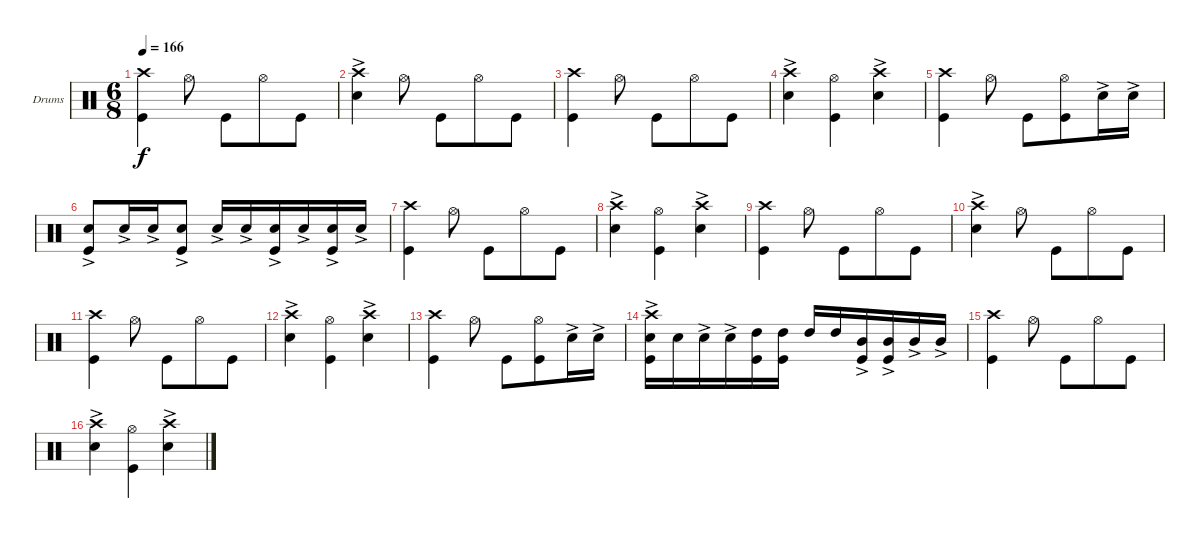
\bracketExtendMode groupsimilarinstruments
\firstSystemTrackNameOrientation horizontal
\otherSystemsTrackNameOrientation horizontal
\track ("Drumkit" "Drums") {instrument percussion}
\staff {score}
\articulation defaults
\ts (6 8)
\tempo 166
\clef neutral
\ks c
("Crash high (hit)" "Kick (hit)").4{dy f} "Hi-Hat (open)".8 "Kick (hit)".8 "Hi-Hat (open)".8 "Kick (hit)".8 |
("Crash high (hit)" "Snare (hit) 2"{ac}).4 "Hi-Hat (open)".8 "Kick (hit)".8 "Hi-Hat (open)".8 "Kick (hit)".8 |
("Crash high (hit)" "Kick (hit)").4 "Hi-Hat (open)".8 "Kick (hit)".8 "Hi-Hat (open)".8 "Kick (hit)".8 |
("Crash high (hit)" "Snare (hit) 2"{ac}).4 ("Hi-Hat (open)" "Kick (hit)").4 ("Crash high (hit)" "Snare (hit) 2"{ac}).4 |
("Crash high (hit)" "Kick (hit)").4 "Hi-Hat (open)".8 "Kick (hit)".8 ("Hi-Hat (open)" "Kick (hit)").8 "Snare (hit) 2"{ac}.16 "Snare (hit) 2"{ac}.16 |
("Snare (hit) 2"{ac} "Kick (hit)").8 "Snare (hit) 2"{ac}.16 "Snare (hit) 2"{ac}.16 ("Snare (hit) 2"{ac} "Kick (hit)").8 "Snare (hit) 2"{ac}.16 "Snare (hit) 2"{ac}.16 ("Snare (hit) 2"{ac} "Kick (hit)").16 "Snare (hit) 2"{ac}.16 ("Snare (hit) 2"{ac} "Kick (hit)").16 "Snare (hit) 2"{ac}.16 |
("Crash high (hit)" "Kick (hit)").4 "Hi-Hat (open)".8 "Kick (hit)".8 "Hi-Hat (open)".8 "Kick (hit)".8 |
("Crash high (hit)" "Snare (hit) 2"{ac}).4 ("Hi-Hat (open)" "Kick (hit)").4 ("Crash high (hit)" "Snare (hit) 2"{ac}).4 |
("Crash high (hit)" "Kick (hit)").4 "Hi-Hat (open)".8 "Kick (hit)".8 "Hi-Hat (open)".8 "Kick (hit)".8 |
("Crash high (hit)" "Snare (hit) 2"{ac}).4 "Hi-Hat (open)".8 "Kick (hit)".8 "Hi-Hat (open)".8 "Kick (hit)".8 |
("Crash high (hit)" "Kick (hit)").4 "Hi-Hat (open)".8 "Kick (hit)".8 "Hi-Hat (open)".8 "Kick (hit)".8 |
("Crash high (hit)" "Snare (hit) 2"{ac}).4 ("Hi-Hat (open)" "Kick (hit)").4 ("Crash high (hit)" "Snare (hit) 2"{ac}).4 |
("Crash high (hit)" "Kick (hit)").4 "Hi-Hat (open)".8 "Kick (hit)".8 ("Hi-Hat (open)" "Kick (hit)").8 "Snare (hit) 2"{ac}.16 "Snare (hit) 2"{ac}.16 |
("Crash high (hit)" "Snare (hit) 2"{ac} "Kick (hit)").16 "Snare (hit) 2".16 "Snare (hit) 2"{ac}.16 "Snare (hit) 2"{ac}.16 ("High Tom (hit)" "Kick (hit)").16 ("High Tom (hit)" "Kick (hit)").16 "High Tom (hit)".16 "High Tom (hit)".16 ("Mid Tom (hit)"{ac} "Kick (hit)").16 ("Mid Tom (hit)"{ac} "Kick (hit)").16 "Mid Tom (hit)"{ac}.16 "Mid Tom (hit)"{ac}.16 |
("Crash high (hit)" "Kick (hit)").4 "Hi-Hat (open)".8 "Kick (hit)".8 "Hi-Hat (open)".8 "Kick (hit)".8 |
("Crash high (hit)" "Snare (hit) 2"{ac}).4 ("Hi-Hat (open)" "Kick (hit)").4 ("Crash high (hit)" "Snare (hit) 2"{ac}).4
